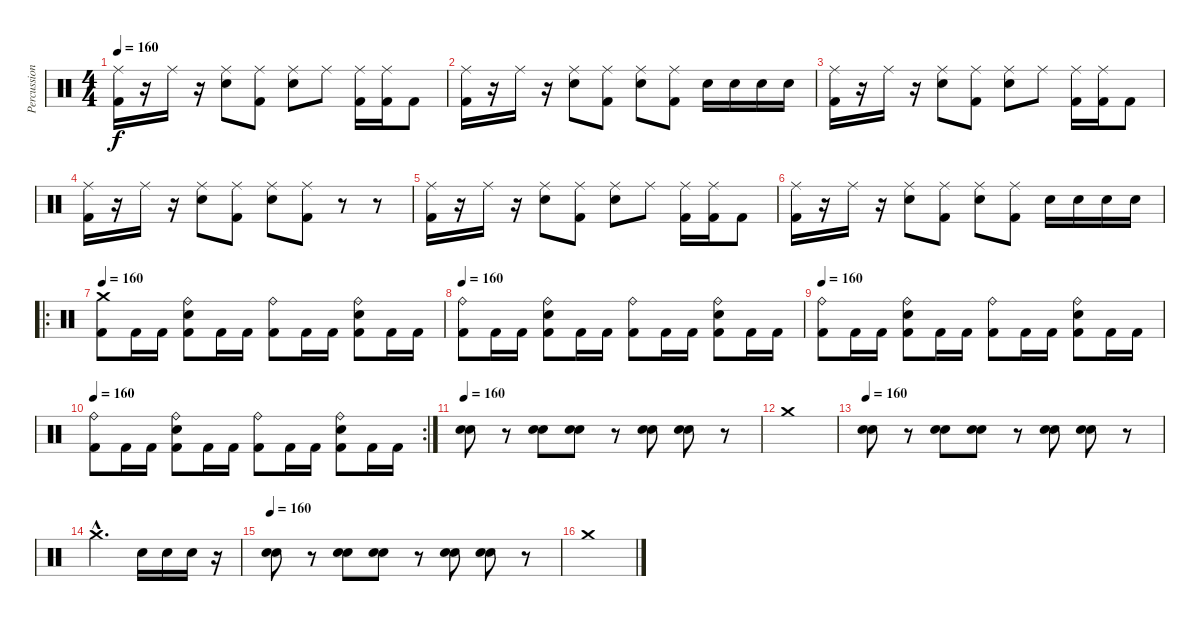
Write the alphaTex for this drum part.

\track ("Percussions" "Percussion") {instrument percussion}
\staff {score}
\articulation defaults
\ts (4 4)
\tempo 160
\clef neutral
\ks c
("Kick (hit) 2" "Ride (middle)").16{dy f} r.16 "Ride (middle)".16 r.16 ("Electric Snare (hit)" "Ride (middle)").8 ("Kick (hit) 2" "Ride (middle)").8 ("Electric Snare (hit)" "Ride (middle)").8 "Ride (middle)".8 ("Kick (hit) 2" "Ride (middle)").16 ("Kick (hit) 2" "Ride (middle)").16 "Kick (hit) 2".8 |
("Kick (hit) 2" "Ride (middle)").16 r.16 "Ride (middle)".16 r.16 ("Electric Snare (hit)" "Ride (middle)").8 ("Kick (hit) 2" "Ride (middle)").8 ("Electric Snare (hit)" "Ride (middle)").8 ("Kick (hit) 2" "Ride (middle)").8 "Electric Snare (hit)".16 "Electric Snare (hit)".16 "Snare (hit) 2".16 "Snare (hit) 2".16 |
("Kick (hit) 2" "Ride (middle)").16 r.16 "Ride (middle)".16 r.16 ("Electric Snare (hit)" "Ride (middle)").8 ("Kick (hit) 2" "Ride (middle)").8 ("Electric Snare (hit)" "Ride (middle)").8 "Ride (middle)".8 ("Kick (hit) 2" "Ride (middle)").16 ("Kick (hit) 2" "Ride (middle)").16 "Kick (hit) 2".8 |
("Kick (hit) 2" "Ride (middle)").16 r.16 "Ride (middle)".16 r.16 ("Electric Snare (hit)" "Ride (middle)").8 ("Kick (hit) 2" "Ride (middle)").8 ("Electric Snare (hit)" "Ride (middle)").8 ("Kick (hit) 2" "Ride (middle)").8 r.8 r.8 |
("Kick (hit) 2" "Ride (middle)").16 r.16 "Ride (middle)".16 r.16 ("Electric Snare (hit)" "Ride (middle)").8 ("Kick (hit) 2" "Ride (middle)").8 ("Electric Snare (hit)" "Ride (middle)").8 "Ride (middle)".8 ("Kick (hit) 2" "Ride (middle)").16 ("Kick (hit) 2" "Ride (middle)").16 "Kick (hit) 2".8 |
("Kick (hit) 2" "Ride (middle)").16 r.16 "Ride (middle)".16 r.16 ("Electric Snare (hit)" "Ride (middle)").8 ("Kick (hit) 2" "Ride (middle)").8 ("Electric Snare (hit)" "Ride (middle)").8 ("Kick (hit) 2" "Ride (middle)").8 "Electric Snare (hit)".16 "Electric Snare (hit)".16 "Snare (hit) 2".16 "Snare (hit) 2".16 |
\ro
\tempo 160
("Kick (hit) 2" "Crash medium (hit)").8 "Kick (hit) 2".16 "Kick (hit) 2".16 ("Kick (hit) 2" "Electric Snare (hit)" "Ride (bell)").8 "Kick (hit) 2".16 "Kick (hit) 2".16 ("Kick (hit) 2" "Ride (bell)").8 "Kick (hit) 2".16 "Kick (hit) 2".16 ("Kick (hit) 2" "Electric Snare (hit)" "Ride (bell)").8 "Kick (hit) 2".16 "Kick (hit) 2".16 |
\tempo 160
("Kick (hit) 2" "Ride (bell)").8 "Kick (hit) 2".16 "Kick (hit) 2".16 ("Kick (hit) 2" "Electric Snare (hit)" "Ride (bell)").8 "Kick (hit) 2".16 "Kick (hit) 2".16 ("Kick (hit) 2" "Ride (bell)").8 "Kick (hit) 2".16 "Kick (hit) 2".16 ("Kick (hit) 2" "Electric Snare (hit)" "Ride (bell)").8 "Kick (hit) 2".16 "Kick (hit) 2".16 |
\tempo 160
("Kick (hit) 2" "Ride (bell)").8 "Kick (hit) 2".16 "Kick (hit) 2".16 ("Kick (hit) 2" "Electric Snare (hit)" "Ride (bell)").8 "Kick (hit) 2".16 "Kick (hit) 2".16 ("Kick (hit) 2" "Ride (bell)").8 "Kick (hit) 2".16 "Kick (hit) 2".16 ("Kick (hit) 2" "Electric Snare (hit)" "Ride (bell)").8 "Kick (hit) 2".16 "Kick (hit) 2".16 |
\rc 2
\tempo 160
("Kick (hit) 2" "Ride (bell)").8 "Kick (hit) 2".16 "Kick (hit) 2".16 ("Kick (hit) 2" "Electric Snare (hit)" "Ride (bell)").8 "Kick (hit) 2".16 "Kick (hit) 2".16 ("Kick (hit) 2" "Ride (bell)").8 "Kick (hit) 2".16 "Kick (hit) 2".16 ("Kick (hit) 2" "Electric Snare (hit)" "Ride (bell)").8 "Kick (hit) 2".16 "Kick (hit) 2".16 |
\tempo 160
("Electric Snare (hit)" "Electric Snare (hit)").8 r.8 ("Electric Snare (hit)" "Electric Snare (hit)").8 ("Electric Snare (hit)" "Electric Snare (hit)").8 r.8 ("Electric Snare (hit)" "Electric Snare (hit)").8 ("Electric Snare (hit)" "Electric Snare (hit)").8 r.8 |
"Crash medium (hit)".1 |
\tempo 160
("Snare (hit) 2" "Snare (hit) 2").8 r.8 ("Snare (hit) 2" "Snare (hit) 2").8 ("Snare (hit) 2" "Snare (hit) 2").8 r.8 ("Snare (hit) 2" "Snare (hit) 2").8 ("Snare (hit) 2" "Snare (hit) 2").8 r.8 |
"Crash medium (hit)"{hac}.2{d} "Snare (hit) 2".16 "Snare (hit) 2".16 "Snare (hit) 2".16 r.16 |
\tempo 160
("Electric Snare (hit)" "Electric Snare (hit)").8 r.8 ("Electric Snare (hit)" "Electric Snare (hit)").8 ("Electric Snare (hit)" "Electric Snare (hit)").8 r.8 ("Electric Snare (hit)" "Electric Snare (hit)").8 ("Electric Snare (hit)" "Electric Snare (hit)").8 r.8 |
"Crash medium (hit)".1
